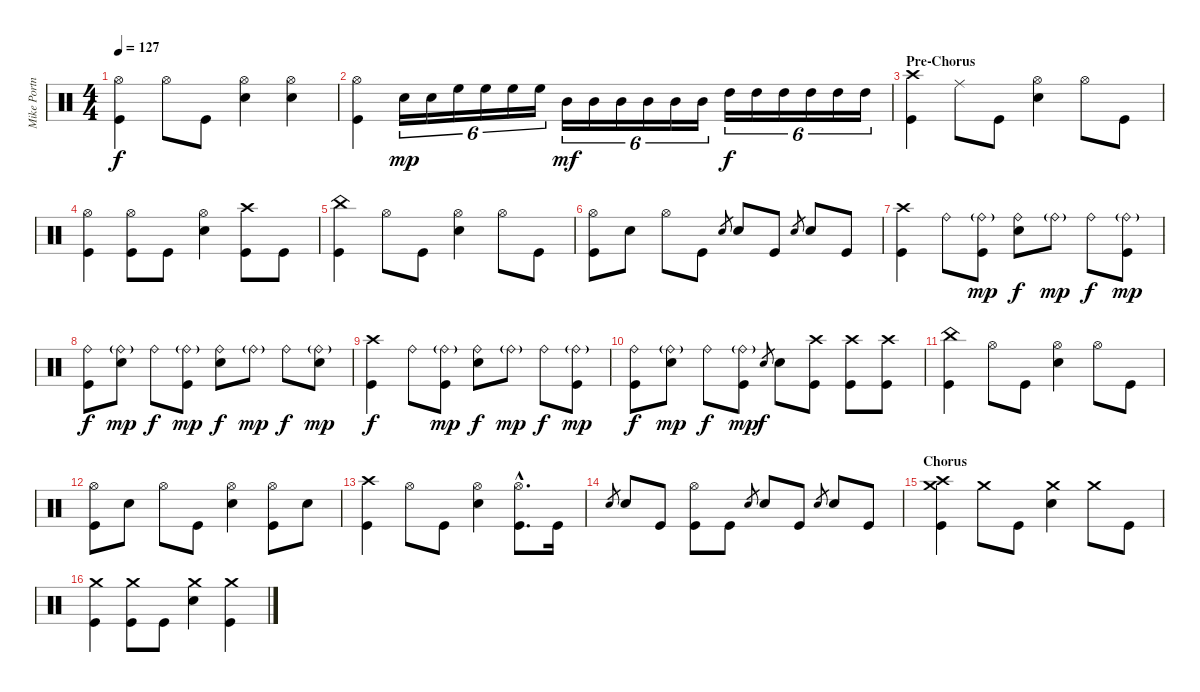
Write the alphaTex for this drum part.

\track ("Mike Portnoy" "Mike Portn") {instrument percussion}
\staff {score}
\articulation defaults
\ts (4 4)
\tempo 127
\clef neutral
\ks c
("Hi-Hat (open)" "Kick (hit)").4{dy f} "Hi-Hat (open)".8 "Kick (hit)".8 ("Hi-Hat (open)" "Electric Snare (hit)").4 ("Hi-Hat (open)" "Electric Snare (hit)").4 |
("Hi-Hat (open)" "Kick (hit)").4 "Electric Snare (hit)".16{tu (6 4) dy mp} "Electric Snare (hit)".16{tu (6 4)} "High Floor Tom (hit)".16{tu (6 4)} "High Floor Tom (hit)".16{tu (6 4)} "High Floor Tom (hit)".16{tu (6 4)} "High Floor Tom (hit)".16{tu (6 4)} "Mid Tom (hit)".16{tu (6 4) dy mf} "Mid Tom (hit)".16{tu (6 4)} "Mid Tom (hit)".16{tu (6 4)} "Mid Tom (hit)".16{tu (6 4)} "Mid Tom (hit)".16{tu (6 4)} "Mid Tom (hit)".16{tu (6 4)} "High Tom (hit)".16{tu (6 4) dy f} "High Tom (hit)".16{tu (6 4)} "High Tom (hit)".16{tu (6 4)} "High Tom (hit)".16{tu (6 4)} "High Tom (hit)".16{tu (6 4)} "High Tom (hit)".16{tu (6 4)} |
\section ("" "Pre-Chorus")
("Crash high (hit)" "Kick (hit)").4 "Ride (middle)".8 "Kick (hit)".8 ("Hi-Hat (open)" "Electric Snare (hit)").4 "Hi-Hat (open)".8 "Kick (hit)".8 |
("Hi-Hat (open)" "Kick (hit)").4 ("Hi-Hat (open)" "Kick (hit)").8 "Kick (hit)".8 ("Hi-Hat (open)" "Electric Snare (hit)").4 ("Crash high (hit)" "Kick (hit)").8 "Kick (hit)".8 |
("China (hit)" "Kick (hit)").4 "Hi-Hat (open)".8 "Kick (hit)".8 ("Hi-Hat (open)" "Electric Snare (hit)").4 "Hi-Hat (open)".8 "Kick (hit)".8 |
("Hi-Hat (open)" "Kick (hit)").8 "Electric Snare (hit)".8 "Hi-Hat (open)".8 "Kick (hit)".8 "Electric Snare (hit)".8{gr} "Electric Snare (hit)".8 "Kick (hit)".8 "Electric Snare (hit)".8{gr} "Electric Snare (hit)".8 "Kick (hit)".8 |
("Crash high (hit)" "Kick (hit)").4 "Ride (bell)".8 ("Ride (bell)"{g} "Kick (hit)").8{dy mp} ("Ride (bell)" "Electric Snare (hit)").8{dy f} "Ride (bell)"{g}.8{dy mp} "Ride (bell)".8{dy f} ("Ride (bell)"{g} "Kick (hit)").8{dy mp} |
("Ride (bell)" "Kick (hit)").8{dy f} ("Ride (bell)"{g} "Electric Snare (hit)").8{dy mp} "Ride (bell)".8{dy f} ("Ride (bell)"{g} "Kick (hit)").8{dy mp} ("Ride (bell)" "Electric Snare (hit)").8{dy f} "Ride (bell)"{g}.8{dy mp} "Ride (bell)".8{dy f} ("Ride (bell)"{g} "Electric Snare (hit)").8{dy mp} |
("Crash high (hit)" "Kick (hit)").4{dy f} "Ride (bell)".8 ("Ride (bell)"{g} "Kick (hit)").8{dy mp} ("Ride (bell)" "Electric Snare (hit)").8{dy f} "Ride (bell)"{g}.8{dy mp} "Ride (bell)".8{dy f} ("Ride (bell)"{g} "Kick (hit)").8{dy mp} |
("Ride (bell)" "Kick (hit)").8{dy f} ("Ride (bell)"{g} "Electric Snare (hit)").8{dy mp} "Ride (bell)".8{dy f} ("Ride (bell)"{g} "Kick (hit)").8{dy mp} "Electric Snare (hit)".8{gr dy f} "Electric Snare (hit)".8 ("Crash high (hit)" "Kick (hit)").8 ("Crash high (hit)" "Kick (hit)").8 ("Crash high (hit)" "Kick (hit)").8 |
("China (hit)" "Kick (hit)").4 "Hi-Hat (open)".8 "Kick (hit)".8 ("Hi-Hat (open)" "Electric Snare (hit)").4 "Hi-Hat (open)".8 "Kick (hit)".8 |
("Hi-Hat (open)" "Kick (hit)").8 "Electric Snare (hit)".8 "Hi-Hat (open)".8 "Kick (hit)".8 ("Hi-Hat (open)" "Electric Snare (hit)").4 ("Hi-Hat (open)" "Kick (hit)").8 "Electric Snare (hit)".8 |
("Crash high (hit)" "Kick (hit)").4 "Hi-Hat (open)".8 "Kick (hit)".8 ("Hi-Hat (open)" "Electric Snare (hit)").4 ("Hi-Hat (open)"{hac} "Kick (hit)"{hac}).8{d} "Kick (hit)".16 |
"Electric Snare (hit)".8{gr} "Electric Snare (hit)".8 "Kick (hit)".8 ("Hi-Hat (open)" "Kick (hit)").8 "Kick (hit)".8 "Electric Snare (hit)".8{gr} "Electric Snare (hit)".8 "Kick (hit)".8 "Electric Snare (hit)".8{gr} "Electric Snare (hit)".8 "Kick (hit)".8 |
\section ("" "Chorus")
("Crash high (hit)" "Crash medium (hit)" "Kick (hit)").4 "Crash medium (hit)".8 "Kick (hit)".8 ("Crash medium (hit)" "Electric Snare (hit)").4 "Crash medium (hit)".8 "Kick (hit)".8 |
("Crash medium (hit)" "Kick (hit)").4 ("Crash medium (hit)" "Kick (hit)").8 "Kick (hit)".8 ("Crash medium (hit)" "Electric Snare (hit)").4 ("Crash medium (hit)" "Kick (hit)").4
